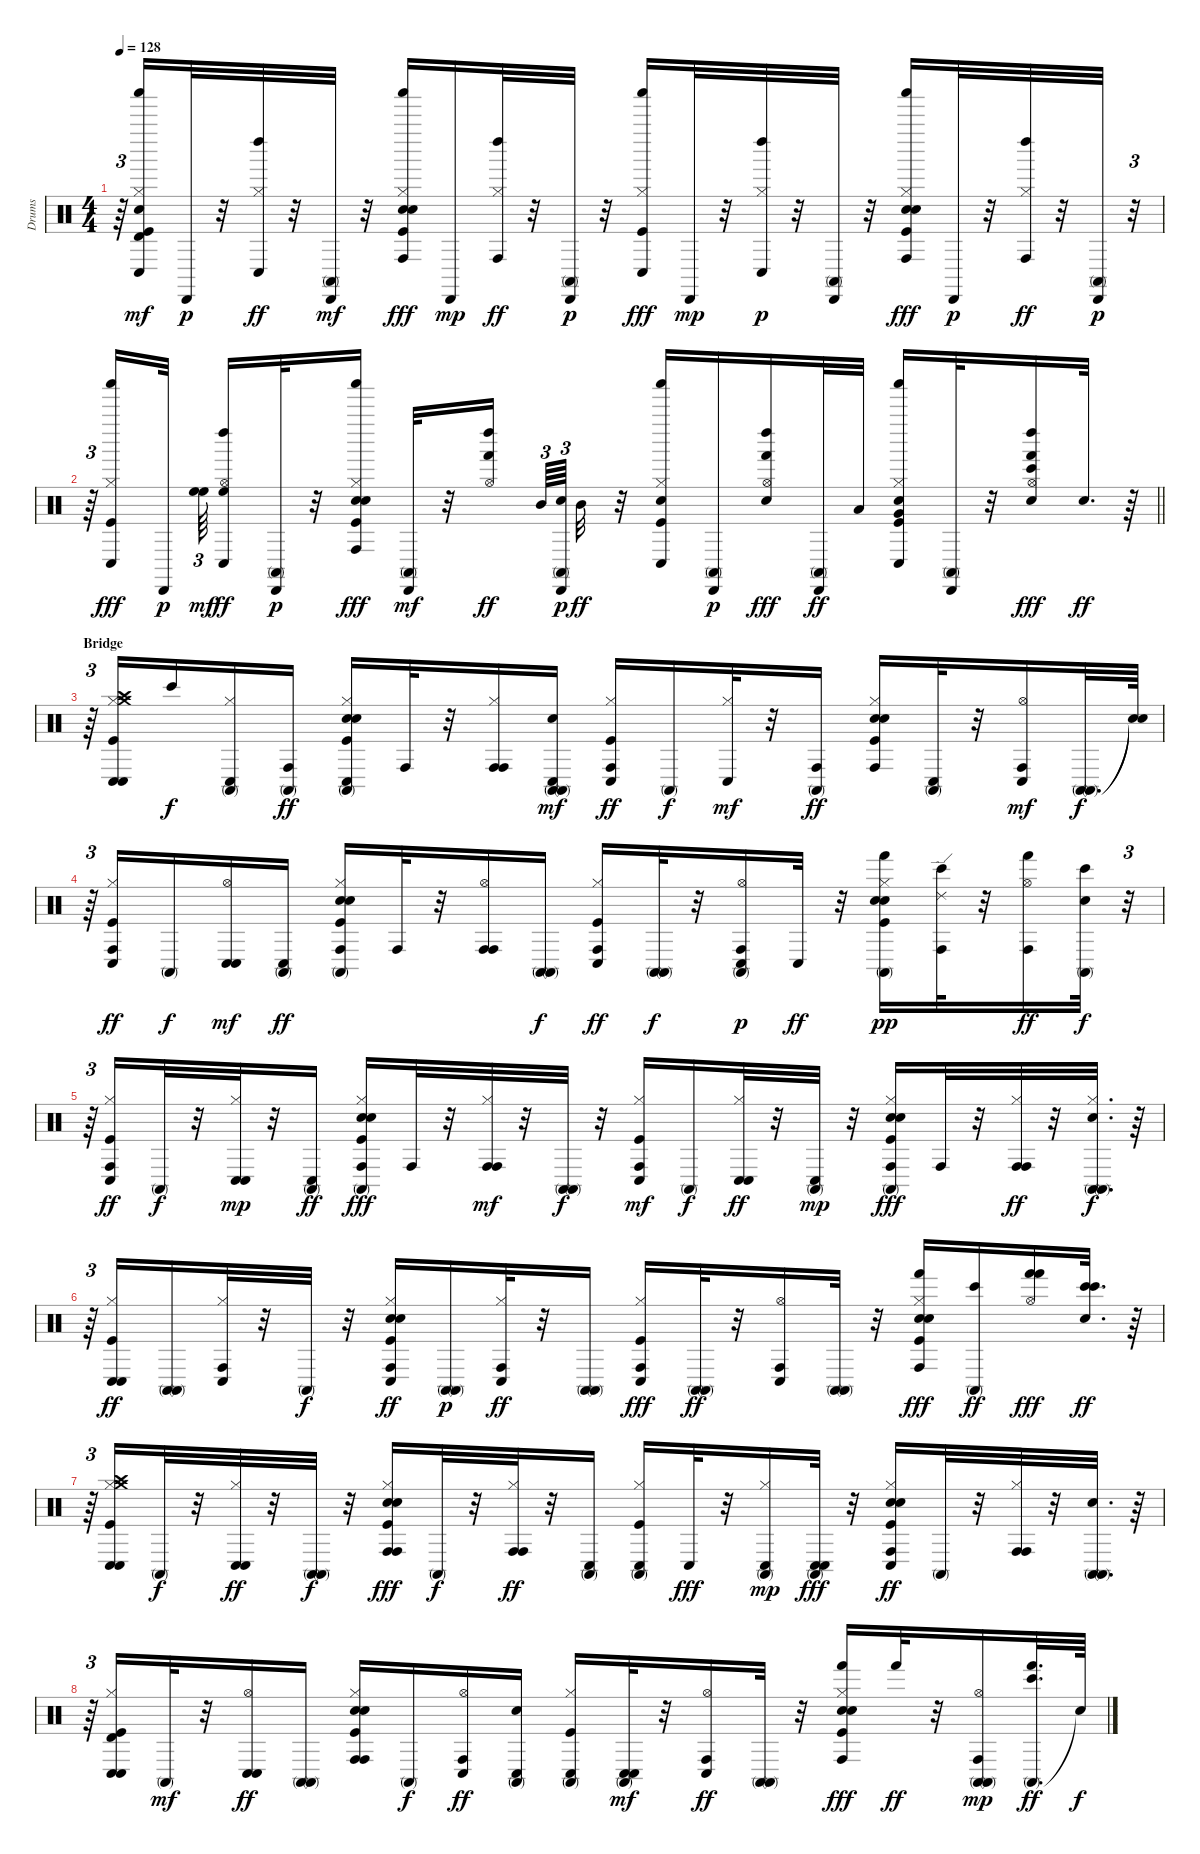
\track ("Drums" "Drums") {instrument percussion}
\staff {score}
\articulation defaults
\ts (4 4)
\tempo 128
\clef neutral
\ks c
r.64{tu (3 2) dy p} ("Kick (hit)" "Snare (hit) 2" "Hi-Hat (closed)" "Shaker (hit)" "Conga low (hit)" "Timbale high (hit)").16{dy mf} "Cabasa (hit)".32{dy p} r.32 ("Hi-Hat (closed)" "Left Maraca (hit)" "Conga low (hit)").32{dy ff} r.32 ("Cabasa (hit)" "Conga high (mute)").32{dy mf} r.32 ("Kick (hit)" "Snare (hit) 2" "Hand Clap (hit)" "Hi-Hat (closed)" "Shaker (hit)" "Conga high (hit)").16{dy fff} "Cabasa (hit)".16{dy mp} ("Hi-Hat (closed)" "Left Maraca (hit)" "Conga high (hit)").32{dy ff} r.32 ("Cabasa (hit)" "Conga high (mute)").32{dy p} r.32 ("Kick (hit)" "Hi-Hat (closed)" "Shaker (hit)" "Conga low (hit)").16{dy fff} "Cabasa (hit)".32{dy mp} r.32 ("Hi-Hat (closed)" "Left Maraca (hit)" "Conga low (hit)").32{dy p} r.32 ("Cabasa (hit)" "Conga high (mute)").32 r.32 ("Kick (hit)" "Snare (hit) 2" "Hand Clap (hit)" "Hi-Hat (closed)" "Shaker (hit)" "Conga high (hit)").16{dy fff} "Cabasa (hit)".32{dy p} r.32 ("Hi-Hat (closed)" "Left Maraca (hit)" "Conga high (hit)").32{dy ff} r.32 ("Cabasa (hit)" "Conga high (mute)").32{dy p} r.32{tu (3 2)} |
\barLineRight lightlight
r.64{tu (3 2)} ("Kick (hit)" "Hi-Hat (closed)" "Shaker (hit)" "Conga low (hit)").16{dy fff} "Cabasa (hit)".32{dy p beam splitsecondary} ("High Floor Tom (hit)" "High Floor Tom (hit)").64{tu (3 2) dy mf beam splitsecondary} ("Hi-Hat (open)" "Left Maraca (hit)" "High Floor Tom (hit)" "Conga low (hit)").16{dy ff} ("Cabasa (hit)" "Conga high (mute)").32{dy p} r.32 ("Kick (hit)" "Snare (hit) 2" "Hand Clap (hit)" "Hi-Hat (closed)" "Shaker (hit)" "Conga high (hit)").16{dy fff} ("Cabasa (hit)" "Conga high (mute)").32{dy mf} r.32 ("Hi-Hat (open)" "Left Maraca (hit)" "Hand (hit)").16{dy ff beam splitsecondary} "Mid Tom (hit)".64{tu (3 2)} ("Snare (hit) 2" "Cabasa (hit)" "Conga high (mute)").64{tu (3 2) dy p beam splitsecondary} "Mid Tom (hit)".32{dy ff} r.32 ("Kick (hit)" "Snare (hit) 2" "Hi-Hat (closed)" "Shaker (hit)" "Conga low (hit)").16 ("Cabasa (hit)" "Conga high (mute)").16{dy p} ("Snare (hit) 2" "Hi-Hat (open)" "Left Maraca (hit)" "Hand (hit)").16{dy fff} ("Cabasa (hit)" "Conga high (mute)").32{dy ff} "Low Tom (hit)".32 ("Kick (hit)" "Hand Clap (hit)" "Hi-Hat (closed)" "Shaker (hit)" "Conga low (hit)" "Very Low Tom (hit)").16 ("Cabasa (hit)" "Conga high (mute)").32 r.32 ("Snare (hit) 2" "Hi-Hat (open)" "Left Maraca (hit)" "Hand (hit)" "Bongo High (hit)").16{dy fff} "Snare (hit) 2".32{d dy ff} r.64 |
\section ("" "Bridge")
r.64{tu (3 2)} ("Kick (hit)" "Hi-Hat (closed)" "Crash medium (hit)" "Crash high (hit)" "Conga low (hit)" "Conga low (hit)").16 "Bongo High (hit)".16{dy f} ("Hi-Hat (closed)" "Conga high (mute)" "Conga low (hit)").16 ("Conga high (hit)" "Conga high (mute)").16{dy ff} ("Kick (hit)" "Snare (hit) 2" "Hand Clap (hit)" "Hi-Hat (closed)" "Conga high (mute)" "Conga low (hit)").16 "Conga high (hit)".32 r.32 ("Hi-Hat (closed)" "Conga high (hit)" "Conga high (hit)").16 ("Snare (hit) 2" "Conga high (mute)" "Conga high (mute)" "Conga low (hit)").16{dy mf} ("Kick (hit)" "Hi-Hat (closed)" "Conga high (hit)" "Conga low (hit)").16{dy ff} "Conga high (mute)".16{dy f} ("Hi-Hat (closed)" "Conga low (hit)").32{dy mf} r.32 ("Conga high (hit)" "Conga high (mute)").16{dy ff} ("Kick (hit)" "Snare (hit) 2" "Hand Clap (hit)" "Hi-Hat (closed)" "Conga high (hit)").16 ("Conga high (mute)" "Conga low (hit)").32 r.32 ("Hi-Hat (open)" "Conga low (hit)" "Conga high (hit)").16{dy mf} ("Conga high (mute)" "Conga high (mute)").32{d dy f} ("Snare (hit)"{t} "Snare (hit)"{t}).64 |
r.64{tu (3 2)} ("Kick (hit)" "Hi-Hat (closed)" "Conga high (hit)" "Conga low (hit)").16{dy ff} "Conga high (mute)".16{dy f} ("Hi-Hat (open)" "Conga low (hit)" "Conga low (hit)").16{dy mf} ("Conga low (hit)" "Conga high (mute)").16{dy ff} ("Kick (hit)" "Snare (hit) 2" "Hand Clap (hit)" "Hi-Hat (closed)" "Conga high (mute)" "Conga high (hit)").16 "Conga high (hit)".32 r.32 ("Hi-Hat (open)" "Conga high (hit)" "Conga high (hit)").16 ("Conga high (mute)" "Conga high (mute)").16{dy f} ("Kick (hit)" "Hi-Hat (closed)" "Conga high (hit)" "Conga low (hit)").16{dy ff} ("Conga high (mute)" "Conga high (mute)").32{dy f} r.32 ("Hi-Hat (open)" "Conga low (hit)" "Conga high (hit)" "Conga high (mute)").16{dy p} "Conga low (hit)".32{dy ff} r.32 ("Kick (hit)" "Snare (hit) 2" "Hand Clap (hit)" "Hi-Hat (closed)" "Conga high (mute)" "Hand (hit)").16{dy pp} ("Conga high (hit)" "Bongo High (hit)" "Ride (edge) 2").32 r.32 ("Hi-Hat (open)" "Conga high (hit)" "Hand (hit)").16{dy ff} ("Snare (hit) 2" "Conga high (mute)" "Bongo High (hit)").32{dy f} r.32{tu (3 2)} |
r.64{tu (3 2)} ("Kick (hit)" "Hi-Hat (closed)" "Conga high (hit)" "Conga low (hit)").16{dy ff} "Conga high (mute)".32{dy f} r.32 ("Hi-Hat (closed)" "Conga low (hit)" "Conga low (hit)").32{dy mp} r.32 ("Conga low (hit)" "Conga high (mute)").16{dy ff} ("Kick (hit)" "Snare (hit) 2" "Hand Clap (hit)" "Hi-Hat (closed)" "Conga high (mute)" "Conga high (hit)").16{dy fff} "Conga high (hit)".32 r.32 ("Hi-Hat (closed)" "Conga high (hit)" "Conga high (hit)").32{dy mf} r.32 ("Conga high (mute)" "Conga high (mute)").32{dy f} r.32 ("Kick (hit)" "Hi-Hat (closed)" "Conga high (hit)" "Conga low (hit)").16{dy mf} "Conga high (mute)".16{dy f} ("Hi-Hat (closed)" "Conga low (hit)" "Conga low (hit)").32{dy ff} r.32 ("Conga low (hit)" "Conga high (mute)").32{dy mp} r.32 ("Kick (hit)" "Snare (hit) 2" "Hand Clap (hit)" "Hi-Hat (closed)" "Conga high (mute)" "Conga high (hit)").16{dy fff} "Conga high (hit)".32 r.32 ("Hi-Hat (closed)" "Conga high (hit)" "Conga high (hit)").32{dy ff} r.32 ("Snare (hit) 2" "Hi-Hat (closed)" "Conga high (mute)" "Conga high (mute)").32{d dy f} r.64 |
r.64{tu (3 2)} ("Kick (hit)" "Hi-Hat (closed)" "Conga low (hit)" "Conga low (hit)").16{dy ff} ("Conga high (mute)" "Conga high (mute)").16 ("Hi-Hat (closed)" "Conga high (hit)" "Conga low (hit)").32 r.32 "Conga high (mute)".32{dy f} r.32 ("Kick (hit)" "Snare (hit) 2" "Hand Clap (hit)" "Hi-Hat (closed)" "Conga low (hit)" "Conga high (hit)").16{dy ff} ("Conga high (mute)" "Conga high (mute)").16{dy p} ("Hi-Hat (closed)" "Conga high (hit)" "Conga low (hit)").32{dy ff} r.32 ("Conga high (mute)" "Conga high (mute)").16 ("Kick (hit)" "Hi-Hat (closed)" "Conga low (hit)" "Conga high (hit)").16{dy fff} ("Conga high (mute)" "Conga high (mute)").32{dy ff} r.32 ("Hi-Hat (open)" "Conga high (hit)" "Conga low (hit)").16 ("Conga high (mute)" "Conga high (mute)").32 r.32 ("Kick (hit)" "Snare (hit) 2" "Hand Clap (hit)" "Hi-Hat (closed)" "Hand (hit)" "Conga high (hit)").16{dy fff} ("Bongo High (hit)" "Conga high (mute)").16{dy ff} ("Hi-Hat (open)" "Hand (hit)" "Hand (hit)").16{dy fff} ("Snare (hit) 2" "Bongo High (hit)" "Bongo High (hit)").32{d dy ff} r.64 |
r.64{tu (3 2)} ("Kick (hit)" "Hi-Hat (closed)" "Crash medium (hit)" "Crash high (hit)" "Conga low (hit)" "Conga low (hit)").16 "Conga high (mute)".32{dy f} r.32 ("Hi-Hat (closed)" "Conga low (hit)" "Conga low (hit)").32{dy ff} r.32 ("Conga high (mute)" "Conga high (mute)").32{dy f} r.32 ("Kick (hit)" "Snare (hit) 2" "Hand Clap (hit)" "Hi-Hat (closed)" "Conga high (hit)" "Conga high (hit)").16{dy fff} "Conga high (mute)".32{dy f} r.32 ("Hi-Hat (closed)" "Conga high (hit)" "Conga high (hit)").32{dy ff} r.32 ("Conga low (hit)" "Conga high (mute)").16 ("Kick (hit)" "Hi-Hat (closed)" "Conga high (mute)" "Conga low (hit)").16 "Conga low (hit)".32{dy fff} r.32 ("Hi-Hat (closed)" "Conga high (mute)" "Conga low (hit)").16{dy mp} ("Conga low (hit)" "Conga high (mute)" "Conga low (hit)").32{dy fff} r.32 ("Kick (hit)" "Snare (hit) 2" "Hand Clap (hit)" "Hi-Hat (closed)" "Conga low (hit)" "Conga high (hit)").16{dy ff} "Conga high (mute)".32 r.32 ("Hi-Hat (closed)" "Conga high (hit)" "Conga high (hit)").32 r.32 ("Snare (hit) 2" "Conga high (mute)" "Conga high (mute)").32{d} r.64 |
r.64{tu (3 2)} ("Kick (hit)" "Hi-Hat (closed)" "Conga low (hit)" "Timbale high (hit)" "Conga low (hit)").16 "Conga high (mute)".32{dy mf} r.32 ("Hi-Hat (open)" "Conga low (hit)" "Conga low (hit)").16{dy ff} ("Conga high (mute)" "Conga high (mute)").16 ("Kick (hit)" "Snare (hit) 2" "Hand Clap (hit)" "Hi-Hat (closed)" "Conga high (hit)" "Conga high (hit)").16 "Conga high (mute)".16{dy f} ("Hi-Hat (open)" "Conga low (hit)" "Conga high (hit)").16{dy ff} ("Snare (hit) 2" "Conga low (hit)" "Conga high (mute)").16 ("Kick (hit)" "Hi-Hat (closed)" "Conga high (mute)" "Conga low (hit)").16 ("Conga low (hit)" "Conga high (mute)" "Conga low (hit)").32{dy mf} r.32 ("Hi-Hat (open)" "Conga low (hit)" "Conga high (hit)").16{dy ff} ("Conga high (mute)" "Conga high (mute)").32 r.32 ("Kick (hit)" "Snare (hit) 2" "Hand Clap (hit)" "Hi-Hat (closed)" "Conga high (hit)" "Hand (hit)").16{dy fff} "Hand (hit)".32{dy ff} r.32 ("Hi-Hat (open)" "Conga high (mute)" "Conga high (hit)" "Conga high (mute)").16{dy mp} ("Conga high (mute)" "Hand (hit)" "Bongo High (hit)").32{d dy ff} "Snare (hit)"{t}.64{dy f}
